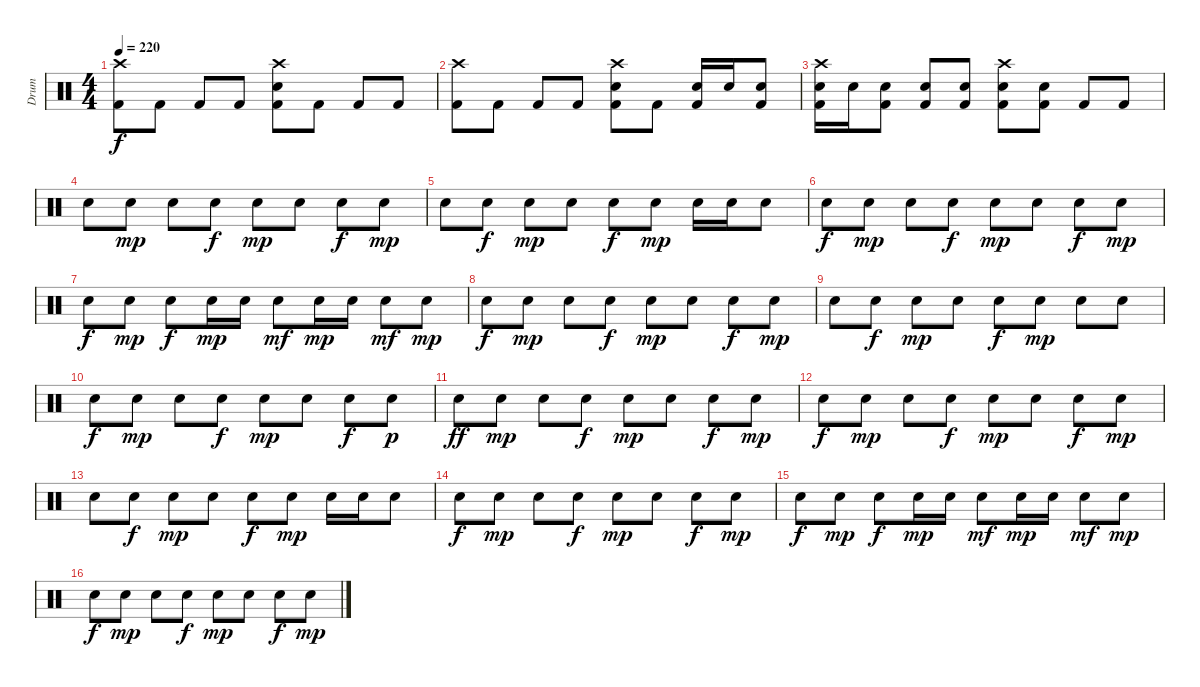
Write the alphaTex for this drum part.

\track ("Drum" "Drum") {instrument percussion}
\staff {score}
\articulation defaults
\ts (4 4)
\tempo 220
\clef neutral
\ks c
("Crash high (hit)" "Kick (hit) 2").8{dy f} "Kick (hit) 2".8 "Kick (hit) 2".8 "Kick (hit) 2".8 ("Crash high (hit)" "Snare (hit) 2" "Kick (hit) 2").8 "Kick (hit) 2".8 "Kick (hit) 2".8 "Kick (hit) 2".8 |
("Crash high (hit)" "Kick (hit) 2").8 "Kick (hit) 2".8 "Kick (hit) 2".8 "Kick (hit) 2".8 ("Crash high (hit)" "Snare (hit) 2" "Kick (hit) 2").8 "Kick (hit) 2".8 ("Snare (hit) 2" "Kick (hit) 2").16 "Snare (hit) 2".16 ("Snare (hit) 2" "Kick (hit) 2").8 |
("Crash high (hit)" "Snare (hit) 2" "Kick (hit) 2").16 "Snare (hit) 2".16 ("Snare (hit) 2" "Kick (hit) 2").8 ("Snare (hit) 2" "Kick (hit) 2").8 ("Snare (hit) 2" "Kick (hit) 2").8 ("Crash high (hit)" "Snare (hit) 2" "Kick (hit) 2").8 ("Snare (hit) 2" "Kick (hit) 2").8 "Kick (hit) 2".8 "Kick (hit) 2".8 |
"Snare (hit) 2".8 "Snare (hit) 2".8{dy mp} "Snare (hit) 2".8 "Snare (hit) 2".8{dy f} "Snare (hit) 2".8{dy mp} "Snare (hit) 2".8 "Snare (hit) 2".8{dy f} "Snare (hit) 2".8{dy mp} |
"Snare (hit) 2".8 "Snare (hit) 2".8{dy f} "Snare (hit) 2".8{dy mp} "Snare (hit) 2".8 "Snare (hit) 2".8{dy f} "Snare (hit) 2".8{dy mp} "Snare (hit) 2".16 "Snare (hit) 2".16 "Snare (hit) 2".8 |
"Snare (hit) 2".8{dy f} "Snare (hit) 2".8{dy mp} "Snare (hit) 2".8 "Snare (hit) 2".8{dy f} "Snare (hit) 2".8{dy mp} "Snare (hit) 2".8 "Snare (hit) 2".8{dy f} "Snare (hit) 2".8{dy mp} |
"Snare (hit) 2".8{dy f} "Snare (hit) 2".8{dy mp} "Snare (hit) 2".8{dy f} "Snare (hit) 2".16{dy mp} "Snare (hit) 2".16 "Snare (hit) 2".8{dy mf} "Snare (hit) 2".16{dy mp} "Snare (hit) 2".16 "Snare (hit) 2".8{dy mf} "Snare (hit) 2".8{dy mp} |
"Snare (hit) 2".8{dy f} "Snare (hit) 2".8{dy mp} "Snare (hit) 2".8 "Snare (hit) 2".8{dy f} "Snare (hit) 2".8{dy mp} "Snare (hit) 2".8 "Snare (hit) 2".8{dy f} "Snare (hit) 2".8{dy mp} |
"Snare (hit) 2".8 "Snare (hit) 2".8{dy f} "Snare (hit) 2".8{dy mp} "Snare (hit) 2".8 "Snare (hit) 2".8{dy f} "Snare (hit) 2".8{dy mp} "Snare (hit) 2".8 "Snare (hit) 2".8 |
"Snare (hit) 2".8{dy f} "Snare (hit) 2".8{dy mp} "Snare (hit) 2".8 "Snare (hit) 2".8{dy f} "Snare (hit) 2".8{dy mp} "Snare (hit) 2".8 "Snare (hit) 2".8{dy f} "Snare (hit) 2".8{dy p} |
"Snare (hit) 2".8{dy ff} "Snare (hit) 2".8{dy mp} "Snare (hit) 2".8 "Snare (hit) 2".8{dy f} "Snare (hit) 2".8{dy mp} "Snare (hit) 2".8 "Snare (hit) 2".8{dy f} "Snare (hit) 2".8{dy mp} |
"Snare (hit) 2".8{dy f} "Snare (hit) 2".8{dy mp} "Snare (hit) 2".8 "Snare (hit) 2".8{dy f} "Snare (hit) 2".8{dy mp} "Snare (hit) 2".8 "Snare (hit) 2".8{dy f} "Snare (hit) 2".8{dy mp} |
"Snare (hit) 2".8 "Snare (hit) 2".8{dy f} "Snare (hit) 2".8{dy mp} "Snare (hit) 2".8 "Snare (hit) 2".8{dy f} "Snare (hit) 2".8{dy mp} "Snare (hit) 2".16 "Snare (hit) 2".16 "Snare (hit) 2".8 |
"Snare (hit) 2".8{dy f} "Snare (hit) 2".8{dy mp} "Snare (hit) 2".8 "Snare (hit) 2".8{dy f} "Snare (hit) 2".8{dy mp} "Snare (hit) 2".8 "Snare (hit) 2".8{dy f} "Snare (hit) 2".8{dy mp} |
"Snare (hit) 2".8{dy f} "Snare (hit) 2".8{dy mp} "Snare (hit) 2".8{dy f} "Snare (hit) 2".16{dy mp} "Snare (hit) 2".16 "Snare (hit) 2".8{dy mf} "Snare (hit) 2".16{dy mp} "Snare (hit) 2".16 "Snare (hit) 2".8{dy mf} "Snare (hit) 2".8{dy mp} |
"Snare (hit) 2".8{dy f} "Snare (hit) 2".8{dy mp} "Snare (hit) 2".8 "Snare (hit) 2".8{dy f} "Snare (hit) 2".8{dy mp} "Snare (hit) 2".8 "Snare (hit) 2".8{dy f} "Snare (hit) 2".8{dy mp}
